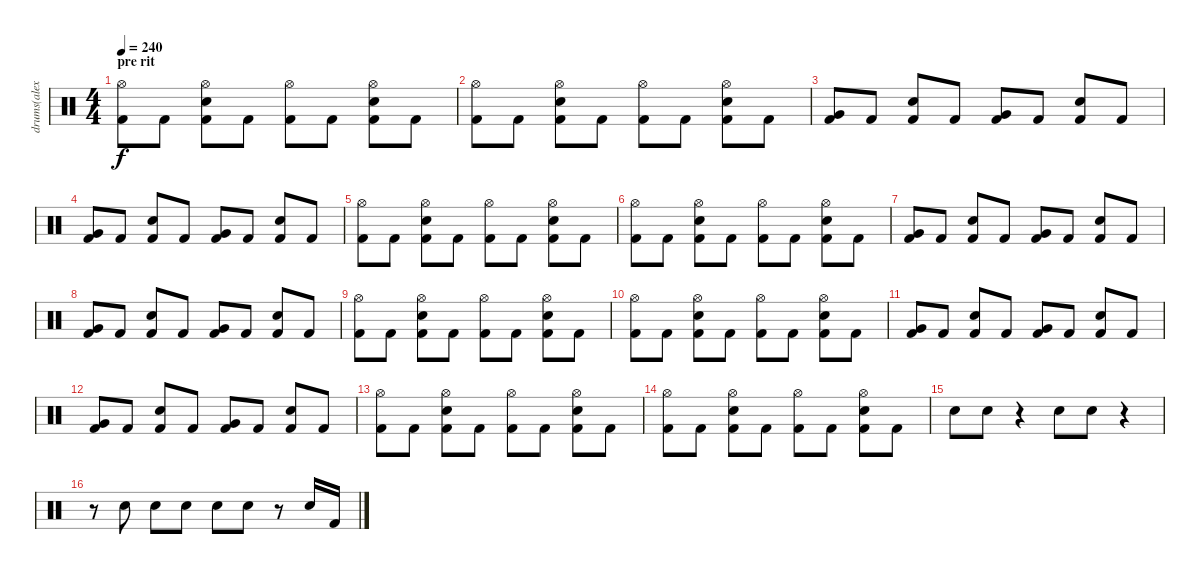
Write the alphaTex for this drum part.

\track ("drums(alex holzshwart)" "drums(alex") {instrument percussion}
\staff {score}
\articulation defaults
\ts (4 4)
\section ("" "pre rit")
\tempo 240
\clef neutral
\ks c
("Hi-Hat (open)" "Kick (hit) 2").8{dy f} "Kick (hit) 2".8 ("Hi-Hat (open)" "Electric Snare (hit)" "Kick (hit) 2").8 "Kick (hit) 2".8 ("Hi-Hat (open)" "Kick (hit) 2").8 "Kick (hit) 2".8 ("Hi-Hat (open)" "Electric Snare (hit)" "Kick (hit) 2").8 "Kick (hit) 2".8 |
("Hi-Hat (open)" "Kick (hit) 2").8 "Kick (hit) 2".8 ("Hi-Hat (open)" "Electric Snare (hit)" "Kick (hit) 2").8 "Kick (hit) 2".8 ("Hi-Hat (open)" "Kick (hit) 2").8 "Kick (hit) 2".8 ("Hi-Hat (open)" "Electric Snare (hit)" "Kick (hit) 2").8 "Kick (hit) 2".8 |
("Very Low Tom (hit)" "Kick (hit) 2").8 "Kick (hit) 2".8 ("Electric Snare (hit)" "Kick (hit) 2").8 "Kick (hit) 2".8 ("Very Low Tom (hit)" "Kick (hit) 2").8 "Kick (hit) 2".8 ("Electric Snare (hit)" "Kick (hit) 2").8 "Kick (hit) 2".8 |
("Very Low Tom (hit)" "Kick (hit) 2").8 "Kick (hit) 2".8 ("Electric Snare (hit)" "Kick (hit) 2").8 "Kick (hit) 2".8 ("Very Low Tom (hit)" "Kick (hit) 2").8 "Kick (hit) 2".8 ("Electric Snare (hit)" "Kick (hit) 2").8 "Kick (hit) 2".8 |
("Hi-Hat (open)" "Kick (hit) 2").8 "Kick (hit) 2".8 ("Hi-Hat (open)" "Electric Snare (hit)" "Kick (hit) 2").8 "Kick (hit) 2".8 ("Hi-Hat (open)" "Kick (hit) 2").8 "Kick (hit) 2".8 ("Hi-Hat (open)" "Electric Snare (hit)" "Kick (hit) 2").8 "Kick (hit) 2".8 |
("Hi-Hat (open)" "Kick (hit) 2").8 "Kick (hit) 2".8 ("Hi-Hat (open)" "Electric Snare (hit)" "Kick (hit) 2").8 "Kick (hit) 2".8 ("Hi-Hat (open)" "Kick (hit) 2").8 "Kick (hit) 2".8 ("Hi-Hat (open)" "Electric Snare (hit)" "Kick (hit) 2").8 "Kick (hit) 2".8 |
("Very Low Tom (hit)" "Kick (hit) 2").8 "Kick (hit) 2".8 ("Electric Snare (hit)" "Kick (hit) 2").8 "Kick (hit) 2".8 ("Very Low Tom (hit)" "Kick (hit) 2").8 "Kick (hit) 2".8 ("Electric Snare (hit)" "Kick (hit) 2").8 "Kick (hit) 2".8 |
("Very Low Tom (hit)" "Kick (hit) 2").8 "Kick (hit) 2".8 ("Electric Snare (hit)" "Kick (hit) 2").8 "Kick (hit) 2".8 ("Very Low Tom (hit)" "Kick (hit) 2").8 "Kick (hit) 2".8 ("Electric Snare (hit)" "Kick (hit) 2").8 "Kick (hit) 2".8 |
("Hi-Hat (open)" "Kick (hit) 2").8 "Kick (hit) 2".8 ("Hi-Hat (open)" "Electric Snare (hit)" "Kick (hit) 2").8 "Kick (hit) 2".8 ("Hi-Hat (open)" "Kick (hit) 2").8 "Kick (hit) 2".8 ("Hi-Hat (open)" "Electric Snare (hit)" "Kick (hit) 2").8 "Kick (hit) 2".8 |
("Hi-Hat (open)" "Kick (hit) 2").8 "Kick (hit) 2".8 ("Hi-Hat (open)" "Electric Snare (hit)" "Kick (hit) 2").8 "Kick (hit) 2".8 ("Hi-Hat (open)" "Kick (hit) 2").8 "Kick (hit) 2".8 ("Hi-Hat (open)" "Electric Snare (hit)" "Kick (hit) 2").8 "Kick (hit) 2".8 |
("Very Low Tom (hit)" "Kick (hit) 2").8 "Kick (hit) 2".8 ("Electric Snare (hit)" "Kick (hit) 2").8 "Kick (hit) 2".8 ("Very Low Tom (hit)" "Kick (hit) 2").8 "Kick (hit) 2".8 ("Electric Snare (hit)" "Kick (hit) 2").8 "Kick (hit) 2".8 |
("Very Low Tom (hit)" "Kick (hit) 2").8 "Kick (hit) 2".8 ("Electric Snare (hit)" "Kick (hit) 2").8 "Kick (hit) 2".8 ("Very Low Tom (hit)" "Kick (hit) 2").8 "Kick (hit) 2".8 ("Electric Snare (hit)" "Kick (hit) 2").8 "Kick (hit) 2".8 |
("Hi-Hat (open)" "Kick (hit) 2").8 "Kick (hit) 2".8 ("Hi-Hat (open)" "Electric Snare (hit)" "Kick (hit) 2").8 "Kick (hit) 2".8 ("Hi-Hat (open)" "Kick (hit) 2").8 "Kick (hit) 2".8 ("Hi-Hat (open)" "Electric Snare (hit)" "Kick (hit) 2").8 "Kick (hit) 2".8 |
("Hi-Hat (open)" "Kick (hit) 2").8 "Kick (hit) 2".8 ("Hi-Hat (open)" "Electric Snare (hit)" "Kick (hit) 2").8 "Kick (hit) 2".8 ("Hi-Hat (open)" "Kick (hit) 2").8 "Kick (hit) 2".8 ("Hi-Hat (open)" "Electric Snare (hit)" "Kick (hit) 2").8 "Kick (hit) 2".8 |
"Electric Snare (hit)".8 "Electric Snare (hit)".8 r.4 "Electric Snare (hit)".8 "Electric Snare (hit)".8 r.4 |
r.8 "Electric Snare (hit)".8 "Electric Snare (hit)".8 "Electric Snare (hit)".8 "Electric Snare (hit)".8 "Electric Snare (hit)".8 r.8 "Electric Snare (hit)".16 "Kick (hit) 2".16
